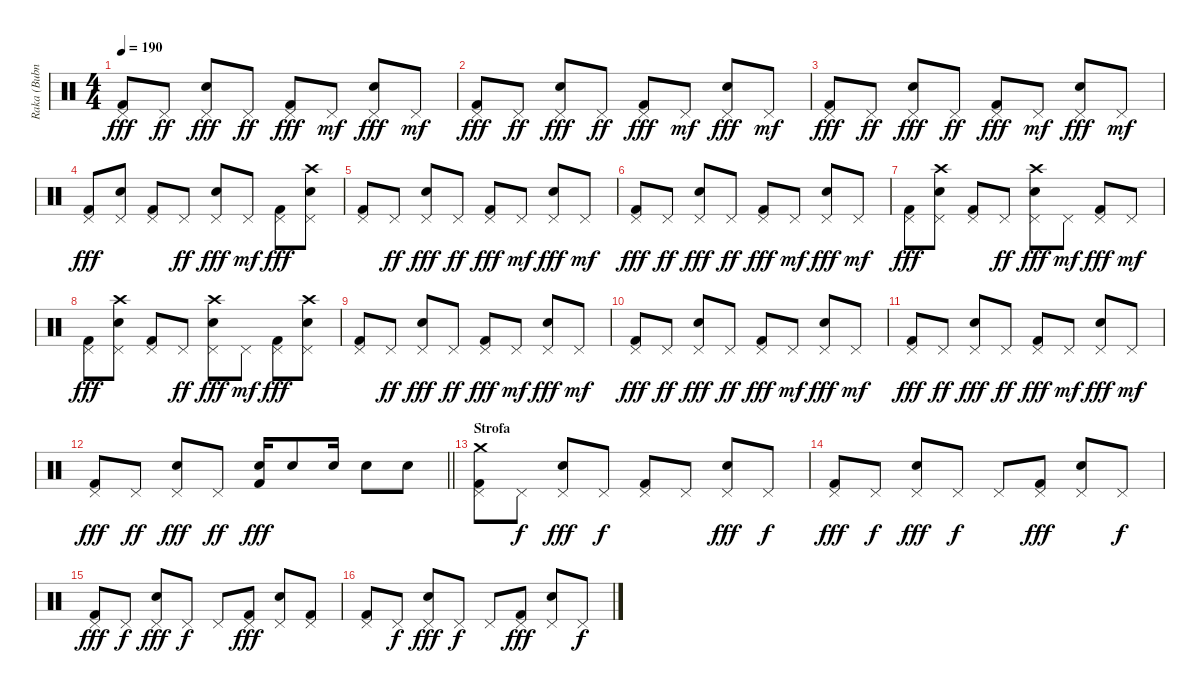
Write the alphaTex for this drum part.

\track ("Raka (Bubnjevi)" "Raka (Bubn") {instrument percussion}
\staff {score}
\articulation defaults
\ts (4 4)
\tempo 190
\clef neutral
\ks c
("Pedal Hi-Hat (hit)" "Kick (hit) 2").8{dy fff} "Pedal Hi-Hat (hit)".8{dy ff} ("Pedal Hi-Hat (hit)" "Snare (hit) 2").8{dy fff} "Pedal Hi-Hat (hit)".8{dy ff} ("Pedal Hi-Hat (hit)" "Kick (hit) 2").8{dy fff} "Pedal Hi-Hat (hit)".8{dy mf} ("Pedal Hi-Hat (hit)" "Snare (hit) 2").8{dy fff} "Pedal Hi-Hat (hit)".8{dy mf} |
("Pedal Hi-Hat (hit)" "Kick (hit) 2").8{dy fff} "Pedal Hi-Hat (hit)".8{dy ff} ("Pedal Hi-Hat (hit)" "Snare (hit) 2").8{dy fff} "Pedal Hi-Hat (hit)".8{dy ff} ("Pedal Hi-Hat (hit)" "Kick (hit) 2").8{dy fff} "Pedal Hi-Hat (hit)".8{dy mf} ("Pedal Hi-Hat (hit)" "Snare (hit) 2").8{dy fff} "Pedal Hi-Hat (hit)".8{dy mf} |
("Pedal Hi-Hat (hit)" "Kick (hit) 2").8{dy fff} "Pedal Hi-Hat (hit)".8{dy ff} ("Pedal Hi-Hat (hit)" "Snare (hit) 2").8{dy fff} "Pedal Hi-Hat (hit)".8{dy ff} ("Pedal Hi-Hat (hit)" "Kick (hit) 2").8{dy fff} "Pedal Hi-Hat (hit)".8{dy mf} ("Pedal Hi-Hat (hit)" "Snare (hit) 2").8{dy fff} "Pedal Hi-Hat (hit)".8{dy mf} |
("Pedal Hi-Hat (hit)" "Kick (hit) 2").8{dy fff} ("Pedal Hi-Hat (hit)" "Snare (hit) 2").8 ("Pedal Hi-Hat (hit)" "Kick (hit) 2").8 "Pedal Hi-Hat (hit)".8{dy ff} ("Pedal Hi-Hat (hit)" "Snare (hit) 2").8{dy fff} "Pedal Hi-Hat (hit)".8{dy mf} ("Pedal Hi-Hat (hit)" "Kick (hit) 2").8{dy fff} ("Crash high (hit)" "Pedal Hi-Hat (hit)" "Snare (hit) 2").8 |
("Pedal Hi-Hat (hit)" "Kick (hit) 2").8 "Pedal Hi-Hat (hit)".8{dy ff} ("Pedal Hi-Hat (hit)" "Snare (hit) 2").8{dy fff} "Pedal Hi-Hat (hit)".8{dy ff} ("Pedal Hi-Hat (hit)" "Kick (hit) 2").8{dy fff} "Pedal Hi-Hat (hit)".8{dy mf} ("Pedal Hi-Hat (hit)" "Snare (hit) 2").8{dy fff} "Pedal Hi-Hat (hit)".8{dy mf} |
("Pedal Hi-Hat (hit)" "Kick (hit) 2").8{dy fff} "Pedal Hi-Hat (hit)".8{dy ff} ("Pedal Hi-Hat (hit)" "Snare (hit) 2").8{dy fff} "Pedal Hi-Hat (hit)".8{dy ff} ("Pedal Hi-Hat (hit)" "Kick (hit) 2").8{dy fff} "Pedal Hi-Hat (hit)".8{dy mf} ("Pedal Hi-Hat (hit)" "Snare (hit) 2").8{dy fff} "Pedal Hi-Hat (hit)".8{dy mf} |
("Pedal Hi-Hat (hit)" "Kick (hit) 2").8{dy fff} ("Crash high (hit)" "Pedal Hi-Hat (hit)" "Snare (hit) 2").8 ("Pedal Hi-Hat (hit)" "Kick (hit) 2").8 "Pedal Hi-Hat (hit)".8{dy ff} ("Crash high (hit)" "Pedal Hi-Hat (hit)" "Snare (hit) 2").8{dy fff} "Pedal Hi-Hat (hit)".8{dy mf} ("Pedal Hi-Hat (hit)" "Kick (hit) 2").8{dy fff} "Pedal Hi-Hat (hit)".8{dy mf} |
("Pedal Hi-Hat (hit)" "Kick (hit) 2").8{dy fff} ("Crash high (hit)" "Pedal Hi-Hat (hit)" "Snare (hit) 2").8 ("Pedal Hi-Hat (hit)" "Kick (hit) 2").8 "Pedal Hi-Hat (hit)".8{dy ff} ("Crash high (hit)" "Pedal Hi-Hat (hit)" "Snare (hit) 2").8{dy fff} "Pedal Hi-Hat (hit)".8{dy mf} ("Pedal Hi-Hat (hit)" "Kick (hit) 2").8{dy fff} ("Crash high (hit)" "Pedal Hi-Hat (hit)" "Snare (hit) 2").8 |
("Pedal Hi-Hat (hit)" "Kick (hit) 2").8 "Pedal Hi-Hat (hit)".8{dy ff} ("Pedal Hi-Hat (hit)" "Snare (hit) 2").8{dy fff} "Pedal Hi-Hat (hit)".8{dy ff} ("Pedal Hi-Hat (hit)" "Kick (hit) 2").8{dy fff} "Pedal Hi-Hat (hit)".8{dy mf} ("Pedal Hi-Hat (hit)" "Snare (hit) 2").8{dy fff} "Pedal Hi-Hat (hit)".8{dy mf} |
("Pedal Hi-Hat (hit)" "Kick (hit) 2").8{dy fff} "Pedal Hi-Hat (hit)".8{dy ff} ("Pedal Hi-Hat (hit)" "Snare (hit) 2").8{dy fff} "Pedal Hi-Hat (hit)".8{dy ff} ("Pedal Hi-Hat (hit)" "Kick (hit) 2").8{dy fff} "Pedal Hi-Hat (hit)".8{dy mf} ("Pedal Hi-Hat (hit)" "Snare (hit) 2").8{dy fff} "Pedal Hi-Hat (hit)".8{dy mf} |
("Pedal Hi-Hat (hit)" "Kick (hit) 2").8{dy fff} "Pedal Hi-Hat (hit)".8{dy ff} ("Pedal Hi-Hat (hit)" "Snare (hit) 2").8{dy fff} "Pedal Hi-Hat (hit)".8{dy ff} ("Pedal Hi-Hat (hit)" "Kick (hit) 2").8{dy fff} "Pedal Hi-Hat (hit)".8{dy mf} ("Pedal Hi-Hat (hit)" "Snare (hit) 2").8{dy fff} "Pedal Hi-Hat (hit)".8{dy mf} |
\barLineRight lightlight
("Pedal Hi-Hat (hit)" "Kick (hit) 2").8{dy fff} "Pedal Hi-Hat (hit)".8{dy ff} ("Pedal Hi-Hat (hit)" "Snare (hit) 2").8{dy fff} "Pedal Hi-Hat (hit)".8{dy ff} ("Snare (hit) 2" "Kick (hit) 2").16{dy fff} "Snare (hit) 2".8 "Snare (hit) 2".16 "Snare (hit) 2".8 "Snare (hit) 2".8 |
\section ("" "Strofa")
("Crash medium (hit)" "Pedal Hi-Hat (hit)" "Kick (hit) 2").8 "Pedal Hi-Hat (hit)".8{dy f} ("Pedal Hi-Hat (hit)" "Snare (hit) 2").8{dy fff} "Pedal Hi-Hat (hit)".8{dy f} ("Pedal Hi-Hat (hit)" "Kick (hit) 2").8 "Pedal Hi-Hat (hit)".8 ("Pedal Hi-Hat (hit)" "Snare (hit) 2").8{dy fff} "Pedal Hi-Hat (hit)".8{dy f} |
("Pedal Hi-Hat (hit)" "Kick (hit) 2").8{dy fff} "Pedal Hi-Hat (hit)".8{dy f} ("Pedal Hi-Hat (hit)" "Snare (hit) 2").8{dy fff} "Pedal Hi-Hat (hit)".8{dy f} "Pedal Hi-Hat (hit)".8 ("Pedal Hi-Hat (hit)" "Kick (hit) 2").8{dy fff} ("Pedal Hi-Hat (hit)" "Snare (hit) 2").8 "Pedal Hi-Hat (hit)".8{dy f} |
("Pedal Hi-Hat (hit)" "Kick (hit) 2").8{dy fff} "Pedal Hi-Hat (hit)".8{dy f} ("Pedal Hi-Hat (hit)" "Snare (hit) 2").8{dy fff} "Pedal Hi-Hat (hit)".8{dy f} "Pedal Hi-Hat (hit)".8 ("Pedal Hi-Hat (hit)" "Kick (hit) 2").8{dy fff} ("Pedal Hi-Hat (hit)" "Snare (hit) 2").8 ("Pedal Hi-Hat (hit)" "Kick (hit) 2").8 |
("Pedal Hi-Hat (hit)" "Kick (hit) 2").8 "Pedal Hi-Hat (hit)".8{dy f} ("Pedal Hi-Hat (hit)" "Snare (hit) 2").8{dy fff} "Pedal Hi-Hat (hit)".8{dy f} "Pedal Hi-Hat (hit)".8 ("Pedal Hi-Hat (hit)" "Kick (hit) 2").8{dy fff} ("Pedal Hi-Hat (hit)" "Snare (hit) 2").8 "Pedal Hi-Hat (hit)".8{dy f}
